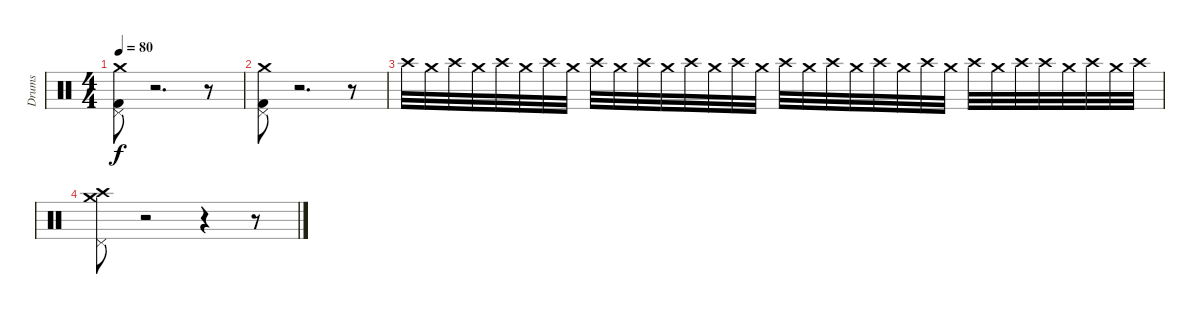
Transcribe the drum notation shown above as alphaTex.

\track ("Drums" "Drums") {instrument percussion}
\staff {score}
\articulation defaults
\ts (4 4)
\tempo 80
\clef neutral
\ks c
("Kick (hit) 2" "Pedal Hi-Hat (hit)" "Crash medium (hit)").8{dy f} r.2{d} r.8 |
("Kick (hit) 2" "Pedal Hi-Hat (hit)" "Crash medium (hit)").8 r.2{d} r.8 |
"Crash high (hit)".32 "Crash medium (hit)".32 "Crash high (hit)".32 "Crash medium (hit)".32 "Crash high (hit)".32 "Crash medium (hit)".32 "Crash high (hit)".32 "Crash medium (hit)".32 "Crash high (hit)".32 "Crash medium (hit)".32 "Crash high (hit)".32 "Crash medium (hit)".32 "Crash high (hit)".32 "Crash medium (hit)".32 "Crash high (hit)".32 "Crash medium (hit)".32 "Crash high (hit)".32 "Crash medium (hit)".32 "Crash high (hit)".32 "Crash medium (hit)".32 "Crash high (hit)".32 "Crash medium (hit)".32 "Crash high (hit)".32 "Crash medium (hit)".32 "Crash high (hit)".32 "Crash medium (hit)".32 "Crash high (hit)".32 "Crash high (hit)".32 "Crash medium (hit)".32 "Crash high (hit)".32 "Crash medium (hit)".32 "Crash high (hit)".32 |
("Crash high (hit)" "Pedal Hi-Hat (hit)" "Crash medium (hit)").8 r.2 r.4 r.8
